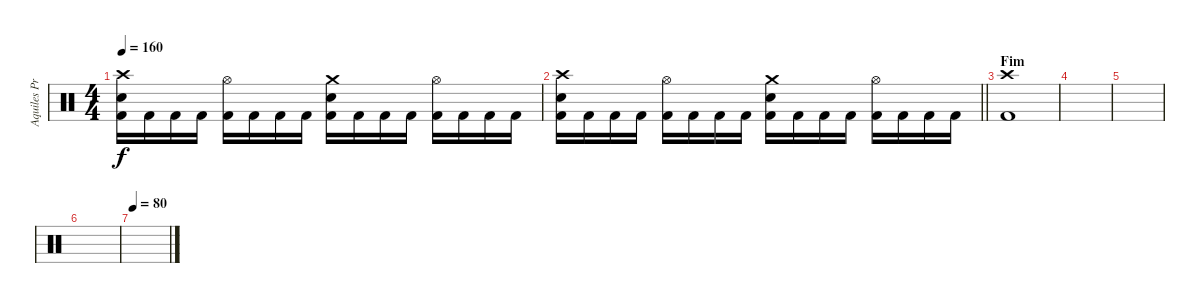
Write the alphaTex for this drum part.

\track ("Aquiles Priester" "Aquiles Pr") {instrument percussion}
\staff {score}
\articulation defaults
\ts (4 4)
\tempo 160
\clef neutral
\ks c
("Crash high (hit)" "Electric Snare (hit)" "Kick (hit) 2").16{dy f} "Kick (hit) 2".16 "Kick (hit) 2".16 "Kick (hit) 2".16 ("Hi-Hat (open)" "Kick (hit) 2").16 "Kick (hit) 2".16 "Kick (hit) 2".16 "Kick (hit) 2".16 ("Crash medium (hit)" "Electric Snare (hit)" "Kick (hit) 2").16 "Kick (hit) 2".16 "Kick (hit) 2".16 "Kick (hit) 2".16 ("Hi-Hat (open)" "Kick (hit) 2").16 "Kick (hit) 2".16 "Kick (hit) 2".16 "Kick (hit) 2".16 |
\barLineRight lightlight
("Crash high (hit)" "Electric Snare (hit)" "Kick (hit) 2").16 "Kick (hit) 2".16 "Kick (hit) 2".16 "Kick (hit) 2".16 ("Hi-Hat (open)" "Kick (hit) 2").16 "Kick (hit) 2".16 "Kick (hit) 2".16 "Kick (hit) 2".16 ("Crash medium (hit)" "Electric Snare (hit)" "Kick (hit) 2").16 "Kick (hit) 2".16 "Kick (hit) 2".16 "Kick (hit) 2".16 ("Hi-Hat (open)" "Kick (hit) 2").16 "Kick (hit) 2".16 "Kick (hit) 2".16 "Kick (hit) 2".16 |
\section ("" "Fim")
("Crash high (hit)" "Kick (hit) 2").1 |
|
|
|
\tempo 80
